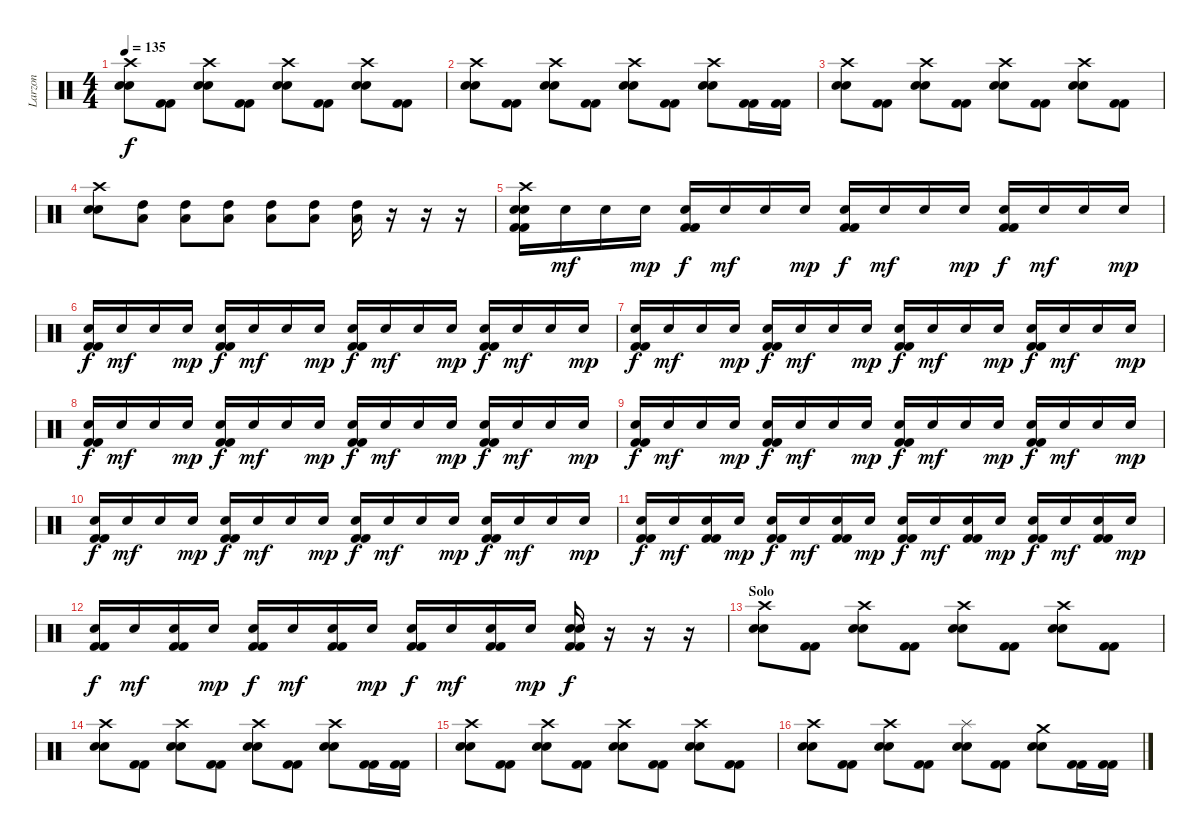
\track ("Larzon" "Larzon") {instrument percussion}
\staff {score}
\articulation defaults
\ts (4 4)
\tempo 135
\clef neutral
\ks c
("Crash high (hit)" "Electric Snare (hit)" "Electric Snare (hit)").8{dy f} ("Kick (hit) 2" "Kick (hit) 2").8 ("Crash high (hit)" "Electric Snare (hit)" "Electric Snare (hit)").8 ("Kick (hit) 2" "Kick (hit) 2").8 ("Crash high (hit)" "Electric Snare (hit)" "Electric Snare (hit)").8 ("Kick (hit) 2" "Kick (hit) 2").8 ("Crash high (hit)" "Electric Snare (hit)" "Electric Snare (hit)").8 ("Kick (hit) 2" "Kick (hit) 2").8 |
("Crash high (hit)" "Electric Snare (hit)" "Electric Snare (hit)").8 ("Kick (hit) 2" "Kick (hit) 2").8 ("Crash high (hit)" "Electric Snare (hit)" "Electric Snare (hit)").8 ("Kick (hit) 2" "Kick (hit) 2").8 ("Crash high (hit)" "Electric Snare (hit)" "Electric Snare (hit)").8 ("Kick (hit) 2" "Kick (hit) 2").8 ("Crash high (hit)" "Electric Snare (hit)" "Electric Snare (hit)").8 ("Kick (hit) 2" "Kick (hit) 2").16 ("Kick (hit) 2" "Kick (hit) 2").16 |
("Crash high (hit)" "Electric Snare (hit)" "Electric Snare (hit)").8 ("Kick (hit) 2" "Kick (hit) 2").8 ("Crash high (hit)" "Electric Snare (hit)" "Electric Snare (hit)").8 ("Kick (hit) 2" "Kick (hit) 2").8 ("Crash high (hit)" "Electric Snare (hit)" "Electric Snare (hit)").8 ("Kick (hit) 2" "Kick (hit) 2").8 ("Crash high (hit)" "Electric Snare (hit)" "Electric Snare (hit)").8 ("Kick (hit) 2" "Kick (hit) 2").8 |
("Crash high (hit)" "Electric Snare (hit)" "Electric Snare (hit)").8 ("High Tom (hit)" "Low Floor Tom (hit)").8 ("High Tom (hit)" "Low Floor Tom (hit)").8 ("High Tom (hit)" "Low Floor Tom (hit)").8 ("High Tom (hit)" "Low Floor Tom (hit)").8 ("High Tom (hit)" "Low Floor Tom (hit)").8 ("High Tom (hit)" "Low Floor Tom (hit)").16 r.16 r.16 r.16 |
("Crash high (hit)" "Electric Snare (hit)" "Electric Snare (hit)" "Kick (hit) 2" "Kick (hit) 2").16 "Electric Snare (hit)".16{dy mf} "Electric Snare (hit)".16 "Electric Snare (hit)".16{dy mp} ("Electric Snare (hit)" "Kick (hit) 2" "Kick (hit) 2").16{dy f} "Electric Snare (hit)".16{dy mf} "Electric Snare (hit)".16 "Electric Snare (hit)".16{dy mp} ("Electric Snare (hit)" "Kick (hit) 2" "Kick (hit) 2").16{dy f} "Electric Snare (hit)".16{dy mf} "Electric Snare (hit)".16 "Electric Snare (hit)".16{dy mp} ("Electric Snare (hit)" "Kick (hit) 2" "Kick (hit) 2").16{dy f} "Electric Snare (hit)".16{dy mf} "Electric Snare (hit)".16 "Electric Snare (hit)".16{dy mp} |
("Electric Snare (hit)" "Kick (hit) 2" "Kick (hit) 2").16{dy f} "Electric Snare (hit)".16{dy mf} "Electric Snare (hit)".16 "Electric Snare (hit)".16{dy mp} ("Electric Snare (hit)" "Kick (hit) 2" "Kick (hit) 2").16{dy f} "Electric Snare (hit)".16{dy mf} "Electric Snare (hit)".16 "Electric Snare (hit)".16{dy mp} ("Electric Snare (hit)" "Kick (hit) 2" "Kick (hit) 2").16{dy f} "Electric Snare (hit)".16{dy mf} "Electric Snare (hit)".16 "Electric Snare (hit)".16{dy mp} ("Electric Snare (hit)" "Kick (hit) 2" "Kick (hit) 2").16{dy f} "Electric Snare (hit)".16{dy mf} "Electric Snare (hit)".16 "Electric Snare (hit)".16{dy mp} |
("Electric Snare (hit)" "Kick (hit) 2" "Kick (hit) 2").16{dy f} "Electric Snare (hit)".16{dy mf} "Electric Snare (hit)".16 "Electric Snare (hit)".16{dy mp} ("Electric Snare (hit)" "Kick (hit) 2" "Kick (hit) 2").16{dy f} "Electric Snare (hit)".16{dy mf} "Electric Snare (hit)".16 "Electric Snare (hit)".16{dy mp} ("Electric Snare (hit)" "Kick (hit) 2" "Kick (hit) 2").16{dy f} "Electric Snare (hit)".16{dy mf} "Electric Snare (hit)".16 "Electric Snare (hit)".16{dy mp} ("Electric Snare (hit)" "Kick (hit) 2" "Kick (hit) 2").16{dy f} "Electric Snare (hit)".16{dy mf} "Electric Snare (hit)".16 "Electric Snare (hit)".16{dy mp} |
("Electric Snare (hit)" "Kick (hit) 2" "Kick (hit) 2").16{dy f} "Electric Snare (hit)".16{dy mf} "Electric Snare (hit)".16 "Electric Snare (hit)".16{dy mp} ("Electric Snare (hit)" "Kick (hit) 2" "Kick (hit) 2").16{dy f} "Electric Snare (hit)".16{dy mf} "Electric Snare (hit)".16 "Electric Snare (hit)".16{dy mp} ("Electric Snare (hit)" "Kick (hit) 2" "Kick (hit) 2").16{dy f} "Electric Snare (hit)".16{dy mf} "Electric Snare (hit)".16 "Electric Snare (hit)".16{dy mp} ("Electric Snare (hit)" "Kick (hit) 2" "Kick (hit) 2").16{dy f} "Electric Snare (hit)".16{dy mf} "Electric Snare (hit)".16 "Electric Snare (hit)".16{dy mp} |
("Electric Snare (hit)" "Kick (hit) 2" "Kick (hit) 2").16{dy f} "Electric Snare (hit)".16{dy mf} "Electric Snare (hit)".16 "Electric Snare (hit)".16{dy mp} ("Electric Snare (hit)" "Kick (hit) 2" "Kick (hit) 2").16{dy f} "Electric Snare (hit)".16{dy mf} "Electric Snare (hit)".16 "Electric Snare (hit)".16{dy mp} ("Electric Snare (hit)" "Kick (hit) 2" "Kick (hit) 2").16{dy f} "Electric Snare (hit)".16{dy mf} "Electric Snare (hit)".16 "Electric Snare (hit)".16{dy mp} ("Electric Snare (hit)" "Kick (hit) 2" "Kick (hit) 2").16{dy f} "Electric Snare (hit)".16{dy mf} "Electric Snare (hit)".16 "Electric Snare (hit)".16{dy mp} |
("Electric Snare (hit)" "Kick (hit) 2" "Kick (hit) 2").16{dy f} "Electric Snare (hit)".16{dy mf} "Electric Snare (hit)".16 "Electric Snare (hit)".16{dy mp} ("Electric Snare (hit)" "Kick (hit) 2" "Kick (hit) 2").16{dy f} "Electric Snare (hit)".16{dy mf} "Electric Snare (hit)".16 "Electric Snare (hit)".16{dy mp} ("Electric Snare (hit)" "Kick (hit) 2" "Kick (hit) 2").16{dy f} "Electric Snare (hit)".16{dy mf} "Electric Snare (hit)".16 "Electric Snare (hit)".16{dy mp} ("Electric Snare (hit)" "Kick (hit) 2" "Kick (hit) 2").16{dy f} "Electric Snare (hit)".16{dy mf} "Electric Snare (hit)".16 "Electric Snare (hit)".16{dy mp} |
("Electric Snare (hit)" "Kick (hit) 2" "Kick (hit) 2").16{dy f} "Electric Snare (hit)".16{dy mf} ("Electric Snare (hit)" "Kick (hit) 2" "Kick (hit) 2").16 "Electric Snare (hit)".16{dy mp} ("Electric Snare (hit)" "Kick (hit) 2" "Kick (hit) 2").16{dy f} "Electric Snare (hit)".16{dy mf} ("Electric Snare (hit)" "Kick (hit) 2" "Kick (hit) 2").16 "Electric Snare (hit)".16{dy mp} ("Electric Snare (hit)" "Kick (hit) 2" "Kick (hit) 2").16{dy f} "Electric Snare (hit)".16{dy mf} ("Electric Snare (hit)" "Kick (hit) 2" "Kick (hit) 2").16 "Electric Snare (hit)".16{dy mp} ("Electric Snare (hit)" "Kick (hit) 2" "Kick (hit) 2").16{dy f} "Electric Snare (hit)".16{dy mf} ("Electric Snare (hit)" "Kick (hit) 2" "Kick (hit) 2").16 "Electric Snare (hit)".16{dy mp} |
("Electric Snare (hit)" "Kick (hit) 2" "Kick (hit) 2").16{dy f} "Electric Snare (hit)".16{dy mf} ("Electric Snare (hit)" "Kick (hit) 2" "Kick (hit) 2").16 "Electric Snare (hit)".16{dy mp} ("Electric Snare (hit)" "Kick (hit) 2" "Kick (hit) 2").16{dy f} "Electric Snare (hit)".16{dy mf} ("Electric Snare (hit)" "Kick (hit) 2" "Kick (hit) 2").16 "Electric Snare (hit)".16{dy mp} ("Electric Snare (hit)" "Kick (hit) 2" "Kick (hit) 2").16{dy f} "Electric Snare (hit)".16{dy mf} ("Electric Snare (hit)" "Kick (hit) 2" "Kick (hit) 2").16 "Electric Snare (hit)".16{dy mp} ("Electric Snare (hit)" "Electric Snare (hit)" "Kick (hit) 2" "Kick (hit) 2").16{dy f} r.16 r.16 r.16 |
\section ("" "Solo")
("Crash high (hit)" "Electric Snare (hit)" "Electric Snare (hit)").8 ("Kick (hit) 2" "Kick (hit) 2").8 ("Crash high (hit)" "Electric Snare (hit)" "Electric Snare (hit)").8 ("Kick (hit) 2" "Kick (hit) 2").8 ("Crash high (hit)" "Electric Snare (hit)" "Electric Snare (hit)").8 ("Kick (hit) 2" "Kick (hit) 2").8 ("Crash high (hit)" "Electric Snare (hit)" "Electric Snare (hit)").8 ("Kick (hit) 2" "Kick (hit) 2").8 |
("Crash high (hit)" "Electric Snare (hit)" "Electric Snare (hit)").8 ("Kick (hit) 2" "Kick (hit) 2").8 ("Crash high (hit)" "Electric Snare (hit)" "Electric Snare (hit)").8 ("Kick (hit) 2" "Kick (hit) 2").8 ("Crash high (hit)" "Electric Snare (hit)" "Electric Snare (hit)").8 ("Kick (hit) 2" "Kick (hit) 2").8 ("Crash high (hit)" "Electric Snare (hit)" "Electric Snare (hit)").8 ("Kick (hit) 2" "Kick (hit) 2").16 ("Kick (hit) 2" "Kick (hit) 2").16 |
("Crash high (hit)" "Electric Snare (hit)" "Electric Snare (hit)").8 ("Kick (hit) 2" "Kick (hit) 2").8 ("Crash high (hit)" "Electric Snare (hit)" "Electric Snare (hit)").8 ("Kick (hit) 2" "Kick (hit) 2").8 ("Crash high (hit)" "Electric Snare (hit)" "Electric Snare (hit)").8 ("Kick (hit) 2" "Kick (hit) 2").8 ("Crash high (hit)" "Electric Snare (hit)" "Electric Snare (hit)").8 ("Kick (hit) 2" "Kick (hit) 2").8 |
("Crash high (hit)" "Electric Snare (hit)" "Electric Snare (hit)").8 ("Kick (hit) 2" "Kick (hit) 2").8 ("Crash high (hit)" "Electric Snare (hit)" "Electric Snare (hit)").8 ("Kick (hit) 2" "Kick (hit) 2").8 ("Splash (hit)" "Electric Snare (hit)" "Electric Snare (hit)").8 ("Kick (hit) 2" "Kick (hit) 2").8 ("Crash medium (hit)" "Electric Snare (hit)" "Electric Snare (hit)").8 ("Kick (hit) 2" "Kick (hit) 2").16 ("Kick (hit) 2" "Kick (hit) 2").16
